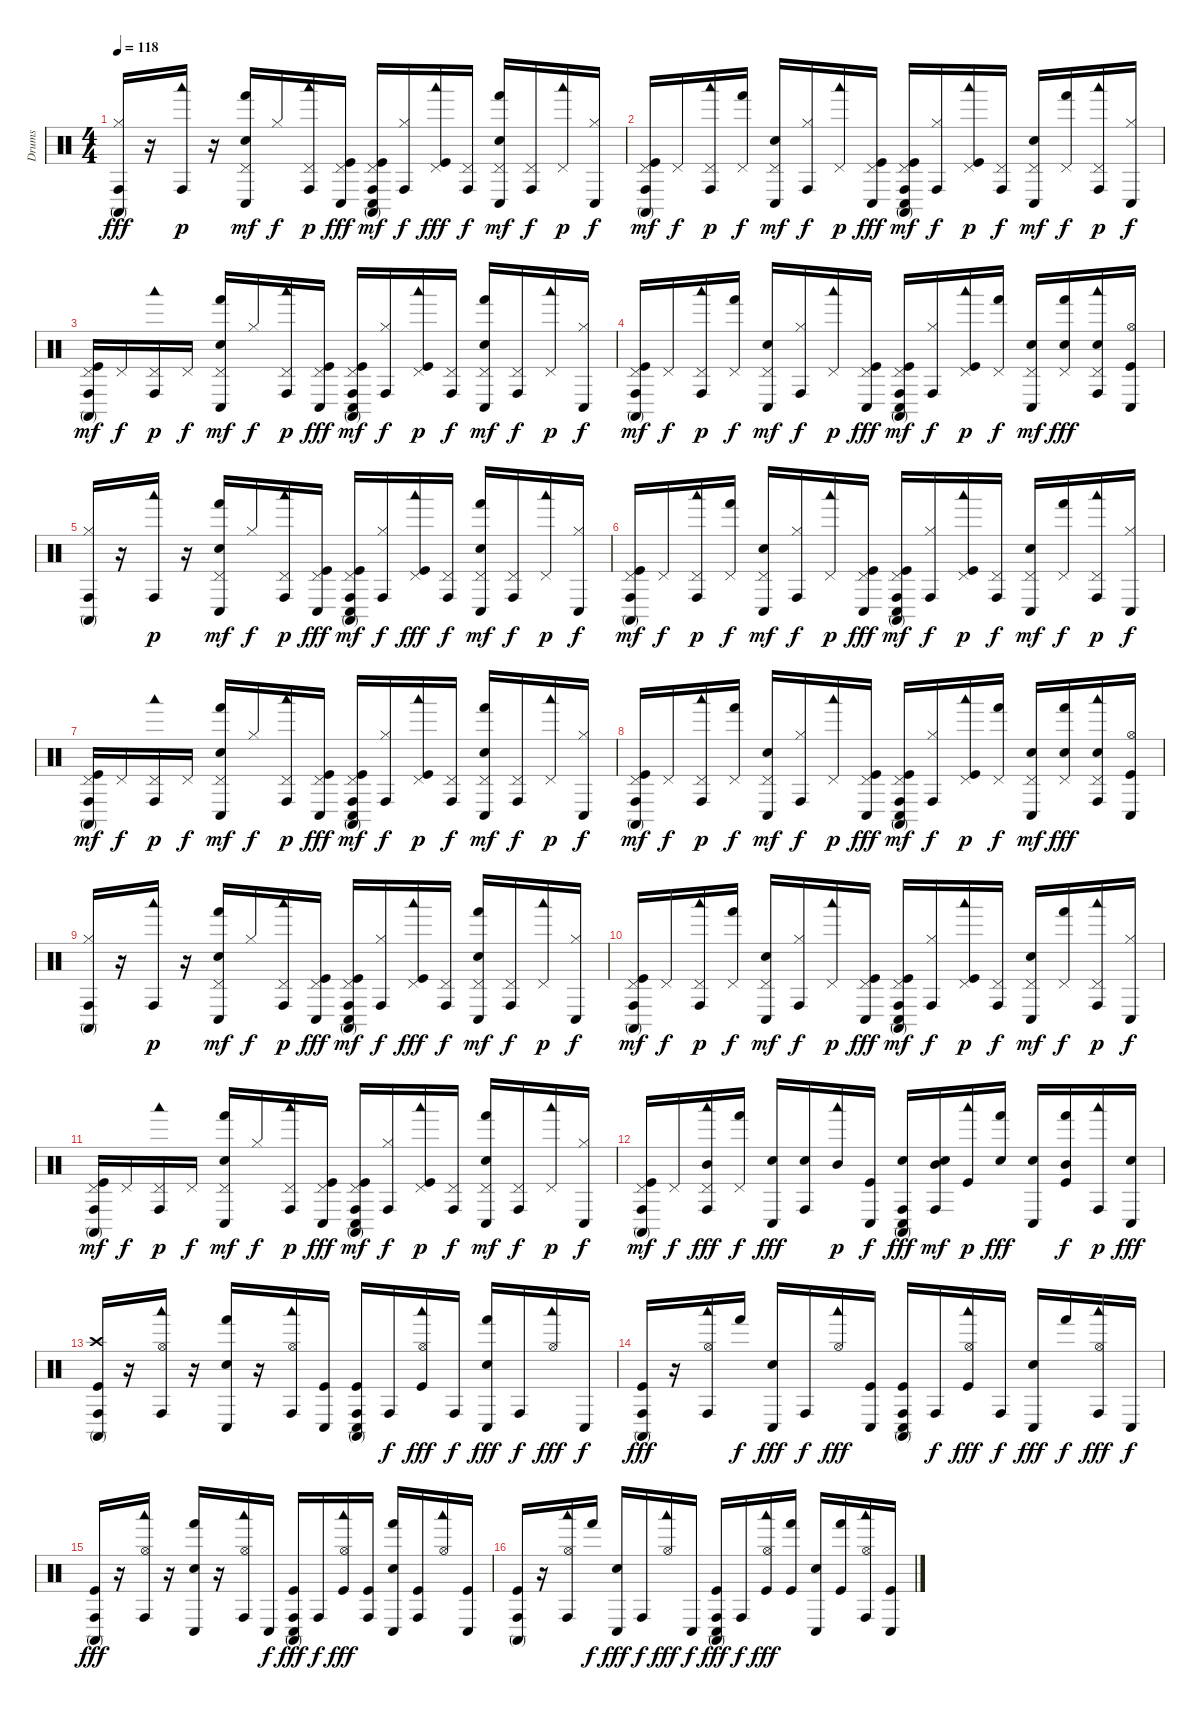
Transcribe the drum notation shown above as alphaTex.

\track ("Drums" "Drums") {instrument percussion}
\staff {score}
\articulation defaults
\ts (4 4)
\tempo 118
\clef neutral
\ks c
("Conga high (mute)" "Conga high (hit)" "Hi-Hat (closed)").16{dy fff} r.16 ("Woodblock low (hit)" "Conga high (hit)").16{dy p} r.16 ("Electric Snare (hit)" "Pedal Hi-Hat (hit)" "Hand (hit)" "Conga low (hit)").16{dy mf} "Hi-Hat (closed)".16{dy f} ("Pedal Hi-Hat (hit)" "Conga high (hit)" "Woodblock low (hit)").16{dy p} ("Pedal Hi-Hat (hit)" "Conga low (hit)" "Kick (hit)").16{dy fff} ("Kick (hit)" "Pedal Hi-Hat (hit)" "Conga high (hit)" "Conga high (mute)" "Conga low (hit)").16{dy mf} ("Hi-Hat (closed)" "Conga high (hit)").16{dy f} ("Pedal Hi-Hat (hit)" "Woodblock low (hit)" "Kick (hit)").16{dy fff} ("Pedal Hi-Hat (hit)" "Conga high (hit)").16{dy f} ("Electric Snare (hit)" "Pedal Hi-Hat (hit)" "Hand (hit)" "Conga low (hit)").16{dy mf} ("Pedal Hi-Hat (hit)" "Conga high (hit)").16{dy f} ("Pedal Hi-Hat (hit)" "Woodblock low (hit)").16{dy p} ("Hi-Hat (closed)" "Conga low (hit)").16{dy f} |
("Kick (hit)" "Pedal Hi-Hat (hit)" "Conga high (hit)" "Conga high (mute)").16{dy mf} "Pedal Hi-Hat (hit)".16{dy f} ("Pedal Hi-Hat (hit)" "Woodblock low (hit)" "Conga high (hit)").16{dy p} ("Pedal Hi-Hat (hit)" "Hand (hit)").16{dy f} ("Electric Snare (hit)" "Pedal Hi-Hat (hit)" "Conga low (hit)").16{dy mf} ("Hi-Hat (closed)" "Conga high (hit)").16{dy f} ("Pedal Hi-Hat (hit)" "Woodblock low (hit)").16{dy p} ("Kick (hit)" "Pedal Hi-Hat (hit)" "Conga low (hit)").16{dy fff} ("Kick (hit)" "Pedal Hi-Hat (hit)" "Conga high (hit)" "Conga high (mute)" "Conga low (hit)").16{dy mf} ("Hi-Hat (closed)" "Conga high (hit)").16{dy f} ("Kick (hit)" "Pedal Hi-Hat (hit)" "Woodblock low (hit)").16{dy p} ("Pedal Hi-Hat (hit)" "Conga high (hit)").16{dy f} ("Electric Snare (hit)" "Pedal Hi-Hat (hit)" "Conga low (hit)").16{dy mf} ("Pedal Hi-Hat (hit)" "Hand (hit)").16{dy f} ("Pedal Hi-Hat (hit)" "Conga high (hit)" "Woodblock low (hit)").16{dy p} ("Hi-Hat (closed)" "Conga low (hit)").16{dy f} |
("Kick (hit)" "Pedal Hi-Hat (hit)" "Conga high (hit)" "Conga high (mute)").16{dy mf} "Pedal Hi-Hat (hit)".16{dy f} ("Pedal Hi-Hat (hit)" "Woodblock low (hit)" "Conga high (hit)").16{dy p} "Pedal Hi-Hat (hit)".16{dy f} ("Electric Snare (hit)" "Pedal Hi-Hat (hit)" "Hand (hit)" "Conga low (hit)").16{dy mf} "Hi-Hat (closed)".16{dy f} ("Pedal Hi-Hat (hit)" "Conga high (hit)" "Woodblock low (hit)").16{dy p} ("Kick (hit)" "Pedal Hi-Hat (hit)" "Conga low (hit)").16{dy fff} ("Kick (hit)" "Pedal Hi-Hat (hit)" "Conga high (hit)" "Conga high (mute)" "Conga low (hit)").16{dy mf} ("Hi-Hat (closed)" "Conga high (hit)").16{dy f} ("Kick (hit)" "Pedal Hi-Hat (hit)" "Woodblock low (hit)").16{dy p} ("Pedal Hi-Hat (hit)" "Conga high (hit)").16{dy f} ("Electric Snare (hit)" "Pedal Hi-Hat (hit)" "Hand (hit)" "Conga low (hit)").16{dy mf} ("Pedal Hi-Hat (hit)" "Conga high (hit)").16{dy f} ("Pedal Hi-Hat (hit)" "Woodblock low (hit)").16{dy p} ("Hi-Hat (closed)" "Conga low (hit)").16{dy f} |
("Kick (hit)" "Pedal Hi-Hat (hit)" "Conga high (hit)" "Conga high (mute)").16{dy mf} "Pedal Hi-Hat (hit)".16{dy f} ("Pedal Hi-Hat (hit)" "Woodblock low (hit)" "Conga high (hit)").16{dy p} ("Pedal Hi-Hat (hit)" "Hand (hit)").16{dy f} ("Electric Snare (hit)" "Pedal Hi-Hat (hit)" "Conga low (hit)").16{dy mf} ("Hi-Hat (closed)" "Conga high (hit)").16{dy f} ("Pedal Hi-Hat (hit)" "Woodblock low (hit)").16{dy p} ("Kick (hit)" "Pedal Hi-Hat (hit)" "Conga low (hit)").16{dy fff} ("Kick (hit)" "Pedal Hi-Hat (hit)" "Conga high (hit)" "Conga high (mute)" "Conga low (hit)").16{dy mf} ("Hi-Hat (closed)" "Conga high (hit)").16{dy f} ("Kick (hit)" "Pedal Hi-Hat (hit)" "Woodblock low (hit)").16{dy p} ("Pedal Hi-Hat (hit)" "Hand (hit)").16{dy f} ("Electric Snare (hit)" "Pedal Hi-Hat (hit)" "Conga low (hit)").16{dy mf} ("Pedal Hi-Hat (hit)" "Hand (hit)" "Electric Snare (hit)").16{dy fff} ("Pedal Hi-Hat (hit)" "Conga high (hit)" "Woodblock low (hit)" "Electric Snare (hit)").16 ("Conga low (hit)" "Hi-Hat (open)" "Kick (hit)").16 |
("Conga high (hit)" "Conga high (mute)" "Hi-Hat (closed)").16 r.16 ("Woodblock low (hit)" "Conga high (hit)").16{dy p} r.16 ("Electric Snare (hit)" "Pedal Hi-Hat (hit)" "Hand (hit)" "Conga low (hit)").16{dy mf} "Hi-Hat (closed)".16{dy f} ("Pedal Hi-Hat (hit)" "Conga high (hit)" "Woodblock low (hit)").16{dy p} ("Pedal Hi-Hat (hit)" "Conga low (hit)" "Kick (hit)").16{dy fff} ("Kick (hit)" "Pedal Hi-Hat (hit)" "Conga high (hit)" "Conga high (mute)" "Conga low (hit)").16{dy mf} ("Hi-Hat (closed)" "Conga high (hit)").16{dy f} ("Pedal Hi-Hat (hit)" "Woodblock low (hit)" "Kick (hit)").16{dy fff} ("Pedal Hi-Hat (hit)" "Conga high (hit)").16{dy f} ("Electric Snare (hit)" "Pedal Hi-Hat (hit)" "Hand (hit)" "Conga low (hit)").16{dy mf} ("Pedal Hi-Hat (hit)" "Conga high (hit)").16{dy f} ("Pedal Hi-Hat (hit)" "Woodblock low (hit)").16{dy p} ("Hi-Hat (closed)" "Conga low (hit)").16{dy f} |
("Kick (hit)" "Pedal Hi-Hat (hit)" "Conga high (hit)" "Conga high (mute)").16{dy mf} "Pedal Hi-Hat (hit)".16{dy f} ("Pedal Hi-Hat (hit)" "Woodblock low (hit)" "Conga high (hit)").16{dy p} ("Pedal Hi-Hat (hit)" "Hand (hit)").16{dy f} ("Electric Snare (hit)" "Pedal Hi-Hat (hit)" "Conga low (hit)").16{dy mf} ("Hi-Hat (closed)" "Conga high (hit)").16{dy f} ("Pedal Hi-Hat (hit)" "Woodblock low (hit)").16{dy p} ("Kick (hit)" "Pedal Hi-Hat (hit)" "Conga low (hit)").16{dy fff} ("Kick (hit)" "Pedal Hi-Hat (hit)" "Conga high (hit)" "Conga high (mute)" "Conga low (hit)").16{dy mf} ("Hi-Hat (closed)" "Conga high (hit)").16{dy f} ("Kick (hit)" "Pedal Hi-Hat (hit)" "Woodblock low (hit)").16{dy p} ("Pedal Hi-Hat (hit)" "Conga high (hit)").16{dy f} ("Electric Snare (hit)" "Pedal Hi-Hat (hit)" "Conga low (hit)").16{dy mf} ("Pedal Hi-Hat (hit)" "Hand (hit)").16{dy f} ("Pedal Hi-Hat (hit)" "Conga high (hit)" "Woodblock low (hit)").16{dy p} ("Hi-Hat (closed)" "Conga low (hit)").16{dy f} |
("Kick (hit)" "Pedal Hi-Hat (hit)" "Conga high (hit)" "Conga high (mute)").16{dy mf} "Pedal Hi-Hat (hit)".16{dy f} ("Pedal Hi-Hat (hit)" "Woodblock low (hit)" "Conga high (hit)").16{dy p} "Pedal Hi-Hat (hit)".16{dy f} ("Electric Snare (hit)" "Pedal Hi-Hat (hit)" "Hand (hit)" "Conga low (hit)").16{dy mf} "Hi-Hat (closed)".16{dy f} ("Pedal Hi-Hat (hit)" "Conga high (hit)" "Woodblock low (hit)").16{dy p} ("Kick (hit)" "Pedal Hi-Hat (hit)" "Conga low (hit)").16{dy fff} ("Kick (hit)" "Pedal Hi-Hat (hit)" "Conga high (hit)" "Conga high (mute)" "Conga low (hit)").16{dy mf} ("Hi-Hat (closed)" "Conga high (hit)").16{dy f} ("Kick (hit)" "Pedal Hi-Hat (hit)" "Woodblock low (hit)").16{dy p} ("Pedal Hi-Hat (hit)" "Conga high (hit)").16{dy f} ("Electric Snare (hit)" "Pedal Hi-Hat (hit)" "Hand (hit)" "Conga low (hit)").16{dy mf} ("Pedal Hi-Hat (hit)" "Conga high (hit)").16{dy f} ("Pedal Hi-Hat (hit)" "Woodblock low (hit)").16{dy p} ("Hi-Hat (closed)" "Conga low (hit)").16{dy f} |
("Kick (hit)" "Pedal Hi-Hat (hit)" "Conga high (hit)" "Conga high (mute)").16{dy mf} "Pedal Hi-Hat (hit)".16{dy f} ("Pedal Hi-Hat (hit)" "Woodblock low (hit)" "Conga high (hit)").16{dy p} ("Pedal Hi-Hat (hit)" "Hand (hit)").16{dy f} ("Electric Snare (hit)" "Pedal Hi-Hat (hit)" "Conga low (hit)").16{dy mf} ("Hi-Hat (closed)" "Conga high (hit)").16{dy f} ("Pedal Hi-Hat (hit)" "Woodblock low (hit)").16{dy p} ("Kick (hit)" "Pedal Hi-Hat (hit)" "Conga low (hit)").16{dy fff} ("Kick (hit)" "Pedal Hi-Hat (hit)" "Conga high (hit)" "Conga high (mute)" "Conga low (hit)").16{dy mf} ("Hi-Hat (closed)" "Conga high (hit)").16{dy f} ("Kick (hit)" "Pedal Hi-Hat (hit)" "Woodblock low (hit)").16{dy p} ("Pedal Hi-Hat (hit)" "Hand (hit)").16{dy f} ("Electric Snare (hit)" "Pedal Hi-Hat (hit)" "Conga low (hit)").16{dy mf} ("Pedal Hi-Hat (hit)" "Hand (hit)" "Electric Snare (hit)").16{dy fff} ("Pedal Hi-Hat (hit)" "Conga high (hit)" "Woodblock low (hit)" "Electric Snare (hit)").16 ("Conga low (hit)" "Kick (hit)" "Hi-Hat (open)").16 |
("Conga high (mute)" "Conga high (hit)" "Hi-Hat (closed)").16 r.16 ("Woodblock low (hit)" "Conga high (hit)").16{dy p} r.16 ("Electric Snare (hit)" "Pedal Hi-Hat (hit)" "Hand (hit)" "Conga low (hit)").16{dy mf} "Hi-Hat (closed)".16{dy f} ("Pedal Hi-Hat (hit)" "Conga high (hit)" "Woodblock low (hit)").16{dy p} ("Pedal Hi-Hat (hit)" "Conga low (hit)" "Kick (hit)").16{dy fff} ("Kick (hit)" "Pedal Hi-Hat (hit)" "Conga high (hit)" "Conga high (mute)" "Conga low (hit)").16{dy mf} ("Hi-Hat (closed)" "Conga high (hit)").16{dy f} ("Pedal Hi-Hat (hit)" "Woodblock low (hit)" "Kick (hit)").16{dy fff} ("Pedal Hi-Hat (hit)" "Conga high (hit)").16{dy f} ("Electric Snare (hit)" "Pedal Hi-Hat (hit)" "Hand (hit)" "Conga low (hit)").16{dy mf} ("Pedal Hi-Hat (hit)" "Conga high (hit)").16{dy f} ("Pedal Hi-Hat (hit)" "Woodblock low (hit)").16{dy p} ("Hi-Hat (closed)" "Conga low (hit)").16{dy f} |
("Kick (hit)" "Pedal Hi-Hat (hit)" "Conga high (hit)" "Conga high (mute)").16{dy mf} "Pedal Hi-Hat (hit)".16{dy f} ("Pedal Hi-Hat (hit)" "Woodblock low (hit)" "Conga high (hit)").16{dy p} ("Pedal Hi-Hat (hit)" "Hand (hit)").16{dy f} ("Electric Snare (hit)" "Pedal Hi-Hat (hit)" "Conga low (hit)").16{dy mf} ("Hi-Hat (closed)" "Conga high (hit)").16{dy f} ("Pedal Hi-Hat (hit)" "Woodblock low (hit)").16{dy p} ("Kick (hit)" "Pedal Hi-Hat (hit)" "Conga low (hit)").16{dy fff} ("Kick (hit)" "Pedal Hi-Hat (hit)" "Conga high (hit)" "Conga high (mute)" "Conga low (hit)").16{dy mf} ("Hi-Hat (closed)" "Conga high (hit)").16{dy f} ("Kick (hit)" "Pedal Hi-Hat (hit)" "Woodblock low (hit)").16{dy p} ("Pedal Hi-Hat (hit)" "Conga high (hit)").16{dy f} ("Electric Snare (hit)" "Pedal Hi-Hat (hit)" "Conga low (hit)").16{dy mf} ("Pedal Hi-Hat (hit)" "Hand (hit)").16{dy f} ("Pedal Hi-Hat (hit)" "Conga high (hit)" "Woodblock low (hit)").16{dy p} ("Hi-Hat (closed)" "Conga low (hit)").16{dy f} |
("Kick (hit)" "Pedal Hi-Hat (hit)" "Conga high (hit)" "Conga high (mute)").16{dy mf} "Pedal Hi-Hat (hit)".16{dy f} ("Pedal Hi-Hat (hit)" "Woodblock low (hit)" "Conga high (hit)").16{dy p} "Pedal Hi-Hat (hit)".16{dy f} ("Electric Snare (hit)" "Pedal Hi-Hat (hit)" "Hand (hit)" "Conga low (hit)").16{dy mf} "Hi-Hat (closed)".16{dy f} ("Pedal Hi-Hat (hit)" "Conga high (hit)" "Woodblock low (hit)").16{dy p} ("Kick (hit)" "Pedal Hi-Hat (hit)" "Conga low (hit)").16{dy fff} ("Kick (hit)" "Pedal Hi-Hat (hit)" "Conga high (hit)" "Conga high (mute)" "Conga low (hit)").16{dy mf} ("Hi-Hat (closed)" "Conga high (hit)").16{dy f} ("Kick (hit)" "Pedal Hi-Hat (hit)" "Woodblock low (hit)").16{dy p} ("Pedal Hi-Hat (hit)" "Conga high (hit)").16{dy f} ("Electric Snare (hit)" "Pedal Hi-Hat (hit)" "Hand (hit)" "Conga low (hit)").16{dy mf} ("Pedal Hi-Hat (hit)" "Conga high (hit)").16{dy f} ("Pedal Hi-Hat (hit)" "Woodblock low (hit)").16{dy p} ("Hi-Hat (closed)" "Conga low (hit)").16{dy f} |
("Kick (hit)" "Pedal Hi-Hat (hit)" "Conga high (hit)" "Conga high (mute)").16{dy mf} "Pedal Hi-Hat (hit)".16{dy f} ("Pedal Hi-Hat (hit)" "Woodblock low (hit)" "Conga high (hit)" "Mid Tom (hit)").16{dy fff} ("Pedal Hi-Hat (hit)" "Hand (hit)").16{dy f} ("Conga low (hit)" "Electric Snare (hit)").16{dy fff} ("Conga high (hit)" "Electric Snare (hit)").16 ("Woodblock low (hit)" "Mid Tom (hit)").16{dy p} ("Conga low (hit)" "Kick (hit)").16{dy f} ("Conga high (hit)" "Conga high (mute)" "Conga low (hit)" "Electric Snare (hit)").16{dy fff} ("Conga high (hit)" "Mid Tom (hit)" "Electric Snare (hit)").16{dy mf} ("Woodblock low (hit)" "Kick (hit)").16{dy p} ("Hand (hit)" "Electric Snare (hit)").16{dy fff} ("Conga low (hit)" "Electric Snare (hit)").16 ("Hand (hit)" "Mid Tom (hit)" "Kick (hit)").16{dy f} ("Conga high (hit)" "Woodblock low (hit)").16{dy p} ("Conga low (hit)" "Electric Snare (hit)").16{dy fff} |
("Conga high (hit)" "Conga high (mute)" "Crash high (hit)" "Kick (hit)").16 r.16 ("Woodblock low (hit)" "Conga high (hit)" "Hi-Hat (open)").16 r.16 ("Hand (hit)" "Conga low (hit)" "Electric Snare (hit)").16 r.16 ("Conga high (hit)" "Woodblock low (hit)" "Hi-Hat (open)").16 ("Conga low (hit)" "Kick (hit)").16 ("Conga high (hit)" "Conga high (mute)" "Conga low (hit)" "Kick (hit)").16 "Conga high (hit)".16{dy f} ("Woodblock low (hit)" "Hi-Hat (open)" "Kick (hit)").16{dy fff} "Conga high (hit)".16{dy f} ("Hand (hit)" "Conga low (hit)" "Electric Snare (hit)").16{dy fff} "Conga high (hit)".16{dy f} ("Woodblock low (hit)" "Hi-Hat (open)").16{dy fff volume 9} "Conga low (hit)".16{dy f} |
("Conga high (hit)" "Conga high (mute)" "Kick (hit)").16{dy fff} r.16 ("Woodblock low (hit)" "Conga high (hit)" "Hi-Hat (open)").16 "Hand (hit)".16{dy f} ("Conga low (hit)" "Electric Snare (hit)").16{dy fff} "Conga high (hit)".16{dy f} ("Woodblock low (hit)" "Hi-Hat (open)").16{dy fff} ("Conga low (hit)" "Kick (hit)").16 ("Conga high (hit)" "Conga high (mute)" "Conga low (hit)" "Kick (hit)").16 "Conga high (hit)".16{dy f} ("Woodblock low (hit)" "Hi-Hat (open)" "Kick (hit)").16{dy fff} "Conga high (hit)".16{dy f} ("Conga low (hit)" "Electric Snare (hit)").16{dy fff} "Hand (hit)".16{dy f} ("Conga high (hit)" "Woodblock low (hit)" "Hi-Hat (open)").16{dy fff} "Conga low (hit)".16{dy f} |
("Conga high (hit)" "Conga high (mute)" "Kick (hit)").16{dy fff volume 8} r.16 ("Woodblock low (hit)" "Conga high (hit)" "Hi-Hat (open)").16 r.16 ("Hand (hit)" "Conga low (hit)" "Electric Snare (hit)").16 r.16 ("Conga high (hit)" "Woodblock low (hit)" "Hi-Hat (open)").16 "Conga low (hit)".16{dy f} ("Conga high (hit)" "Conga high (mute)" "Conga low (hit)" "Kick (hit)").16{dy fff} "Conga high (hit)".16{dy f} ("Woodblock low (hit)" "Kick (hit)" "Hi-Hat (open)").16{dy fff} ("Conga high (hit)" "Kick (hit)").16 ("Hand (hit)" "Conga low (hit)" "Electric Snare (hit)").16{volume 8} ("Conga high (hit)" "Kick (hit)").16 ("Woodblock low (hit)" "Hi-Hat (open)").16 ("Conga low (hit)" "Kick (hit)").16 |
("Conga high (hit)" "Conga high (mute)" "Kick (hit)").16 r.16 ("Woodblock low (hit)" "Conga high (hit)" "Hi-Hat (open)").16 "Hand (hit)".16{dy f} ("Conga low (hit)" "Electric Snare (hit)").16{dy fff} "Conga high (hit)".16{dy f} ("Woodblock low (hit)" "Hi-Hat (open)").16{dy fff} "Conga low (hit)".16{dy f} ("Conga high (hit)" "Conga high (mute)" "Conga low (hit)" "Kick (hit)").16{dy fff} "Conga high (hit)".16{dy f} ("Woodblock low (hit)" "Hi-Hat (open)" "Kick (hit)").16{dy fff} ("Hand (hit)" "Kick (hit)").16 ("Conga low (hit)" "Electric Snare (hit)").16 ("Hand (hit)" "Kick (hit)").16 ("Conga high (hit)" "Woodblock low (hit)" "Hi-Hat (open)").16 ("Conga low (hit)" "Kick (hit)").16
